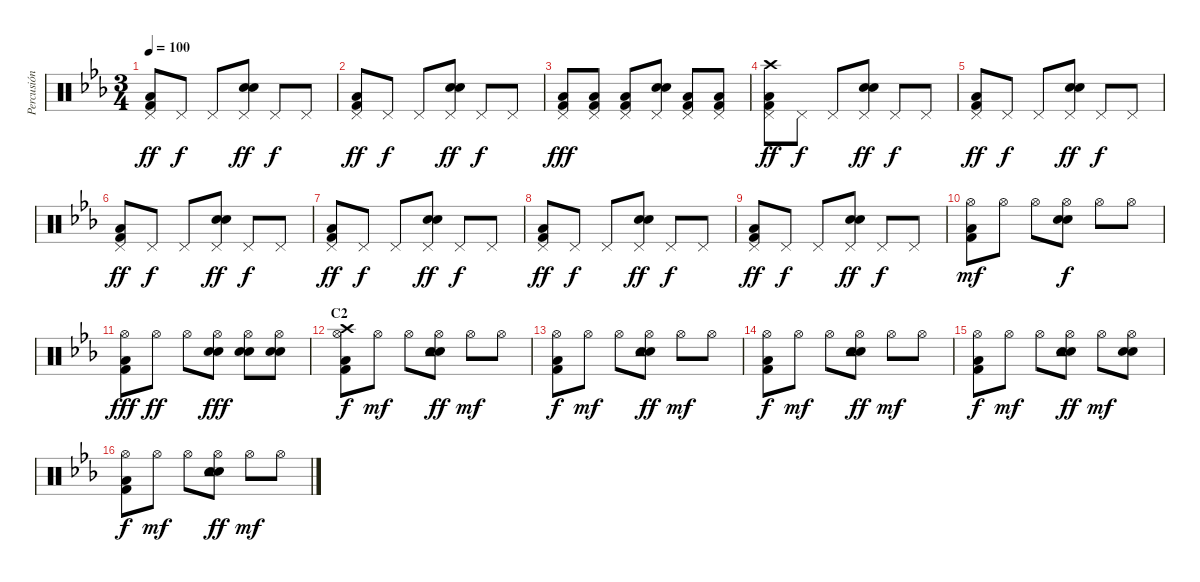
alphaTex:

\track ("Percusión" "Percusión") {instrument percussion}
\staff {score}
\articulation defaults
\ts (3 4)
\tempo 100
\clef neutral
\ks eb
("Pedal Hi-Hat (hit)" "Low Floor Tom (hit)" "Kick (hit) 2").8{dy ff} "Pedal Hi-Hat (hit)".8{dy f} "Pedal Hi-Hat (hit)".8 ("Pedal Hi-Hat (hit)" "Electric Snare (hit)" "Snare (hit) 2").8{dy ff} "Pedal Hi-Hat (hit)".8{dy f} "Pedal Hi-Hat (hit)".8 |
("Pedal Hi-Hat (hit)" "Low Floor Tom (hit)" "Kick (hit) 2").8{dy ff} "Pedal Hi-Hat (hit)".8{dy f} "Pedal Hi-Hat (hit)".8 ("Pedal Hi-Hat (hit)" "Electric Snare (hit)" "Snare (hit) 2").8{dy ff} "Pedal Hi-Hat (hit)".8{dy f} "Pedal Hi-Hat (hit)".8 |
("Pedal Hi-Hat (hit)" "Kick (hit) 2" "Low Floor Tom (hit)").8{dy fff} ("Pedal Hi-Hat (hit)" "Kick (hit) 2" "Low Floor Tom (hit)").8 ("Pedal Hi-Hat (hit)" "Kick (hit) 2" "Low Floor Tom (hit)").8 ("Pedal Hi-Hat (hit)" "Electric Snare (hit)" "Snare (hit) 2").8 ("Pedal Hi-Hat (hit)" "Kick (hit) 2" "Low Floor Tom (hit)").8 ("Pedal Hi-Hat (hit)" "Kick (hit) 2" "Low Floor Tom (hit)").8 |
("Pedal Hi-Hat (hit)" "Low Floor Tom (hit)" "Kick (hit) 2" "Crash high (hit)").8{dy ff} "Pedal Hi-Hat (hit)".8{dy f} "Pedal Hi-Hat (hit)".8 ("Pedal Hi-Hat (hit)" "Electric Snare (hit)" "Snare (hit) 2").8{dy ff} "Pedal Hi-Hat (hit)".8{dy f} "Pedal Hi-Hat (hit)".8 |
("Pedal Hi-Hat (hit)" "Low Floor Tom (hit)" "Kick (hit) 2").8{dy ff} "Pedal Hi-Hat (hit)".8{dy f} "Pedal Hi-Hat (hit)".8 ("Pedal Hi-Hat (hit)" "Electric Snare (hit)" "Snare (hit) 2").8{dy ff} "Pedal Hi-Hat (hit)".8{dy f} "Pedal Hi-Hat (hit)".8 |
("Pedal Hi-Hat (hit)" "Low Floor Tom (hit)" "Kick (hit) 2").8{dy ff} "Pedal Hi-Hat (hit)".8{dy f} "Pedal Hi-Hat (hit)".8 ("Pedal Hi-Hat (hit)" "Electric Snare (hit)" "Snare (hit) 2").8{dy ff} "Pedal Hi-Hat (hit)".8{dy f} "Pedal Hi-Hat (hit)".8 |
("Pedal Hi-Hat (hit)" "Low Floor Tom (hit)" "Kick (hit) 2").8{dy ff} "Pedal Hi-Hat (hit)".8{dy f} "Pedal Hi-Hat (hit)".8 ("Pedal Hi-Hat (hit)" "Electric Snare (hit)" "Snare (hit) 2").8{dy ff} "Pedal Hi-Hat (hit)".8{dy f} "Pedal Hi-Hat (hit)".8 |
("Pedal Hi-Hat (hit)" "Low Floor Tom (hit)" "Kick (hit) 2").8{dy ff} "Pedal Hi-Hat (hit)".8{dy f} "Pedal Hi-Hat (hit)".8 ("Pedal Hi-Hat (hit)" "Electric Snare (hit)" "Snare (hit) 2").8{dy ff} "Pedal Hi-Hat (hit)".8{dy f} "Pedal Hi-Hat (hit)".8 |
("Pedal Hi-Hat (hit)" "Low Floor Tom (hit)" "Kick (hit) 2").8{dy ff} "Pedal Hi-Hat (hit)".8{dy f} "Pedal Hi-Hat (hit)".8 ("Pedal Hi-Hat (hit)" "Electric Snare (hit)" "Snare (hit) 2").8{dy ff} "Pedal Hi-Hat (hit)".8{dy f} "Pedal Hi-Hat (hit)".8 |
("Hi-Hat (open)" "Low Floor Tom (hit)" "Kick (hit) 2").8{dy mf} "Hi-Hat (open)".8 "Hi-Hat (open)".8 ("Hi-Hat (open)" "Electric Snare (hit)" "Snare (hit) 2").8{dy f} "Hi-Hat (open)".8 "Hi-Hat (open)".8 |
("Hi-Hat (open)" "Kick (hit) 2" "Low Floor Tom (hit)").8{dy fff} "Hi-Hat (open)".8{dy ff} "Hi-Hat (open)".8 ("Hi-Hat (open)" "Electric Snare (hit)" "Snare (hit) 2").8{dy fff} ("Hi-Hat (open)" "Electric Snare (hit)" "Snare (hit) 2").8 ("Hi-Hat (open)" "Electric Snare (hit)" "Snare (hit) 2").8 |
\section ("" "C2")
("Hi-Hat (open)" "Low Floor Tom (hit)" "Kick (hit) 2" "Crash high (hit)").8{dy f} "Hi-Hat (open)".8{dy mf} "Hi-Hat (open)".8 ("Hi-Hat (open)" "Electric Snare (hit)" "Snare (hit) 2" "Tambourine (hit)").8{dy ff} "Hi-Hat (open)".8{dy mf} "Hi-Hat (open)".8 |
("Hi-Hat (open)" "Low Floor Tom (hit)" "Kick (hit) 2").8{dy f} "Hi-Hat (open)".8{dy mf} "Hi-Hat (open)".8 ("Hi-Hat (open)" "Electric Snare (hit)" "Snare (hit) 2" "Tambourine (hit)").8{dy ff} "Hi-Hat (open)".8{dy mf} "Hi-Hat (open)".8 |
("Hi-Hat (open)" "Low Floor Tom (hit)" "Kick (hit) 2").8{dy f} "Hi-Hat (open)".8{dy mf} "Hi-Hat (open)".8 ("Hi-Hat (open)" "Electric Snare (hit)" "Snare (hit) 2" "Tambourine (hit)").8{dy ff} "Hi-Hat (open)".8{dy mf} "Hi-Hat (open)".8 |
("Hi-Hat (open)" "Low Floor Tom (hit)" "Kick (hit) 2").8{dy f} "Hi-Hat (open)".8{dy mf} "Hi-Hat (open)".8 ("Hi-Hat (open)" "Electric Snare (hit)" "Snare (hit) 2" "Tambourine (hit)").8{dy ff} "Hi-Hat (open)".8{dy mf} ("Hi-Hat (open)" "Electric Snare (hit)" "Snare (hit) 2").8 |
("Hi-Hat (open)" "Low Floor Tom (hit)" "Kick (hit) 2").8{dy f} "Hi-Hat (open)".8{dy mf} "Hi-Hat (open)".8 ("Hi-Hat (open)" "Electric Snare (hit)" "Snare (hit) 2" "Tambourine (hit)").8{dy ff} "Hi-Hat (open)".8{dy mf} "Hi-Hat (open)".8
